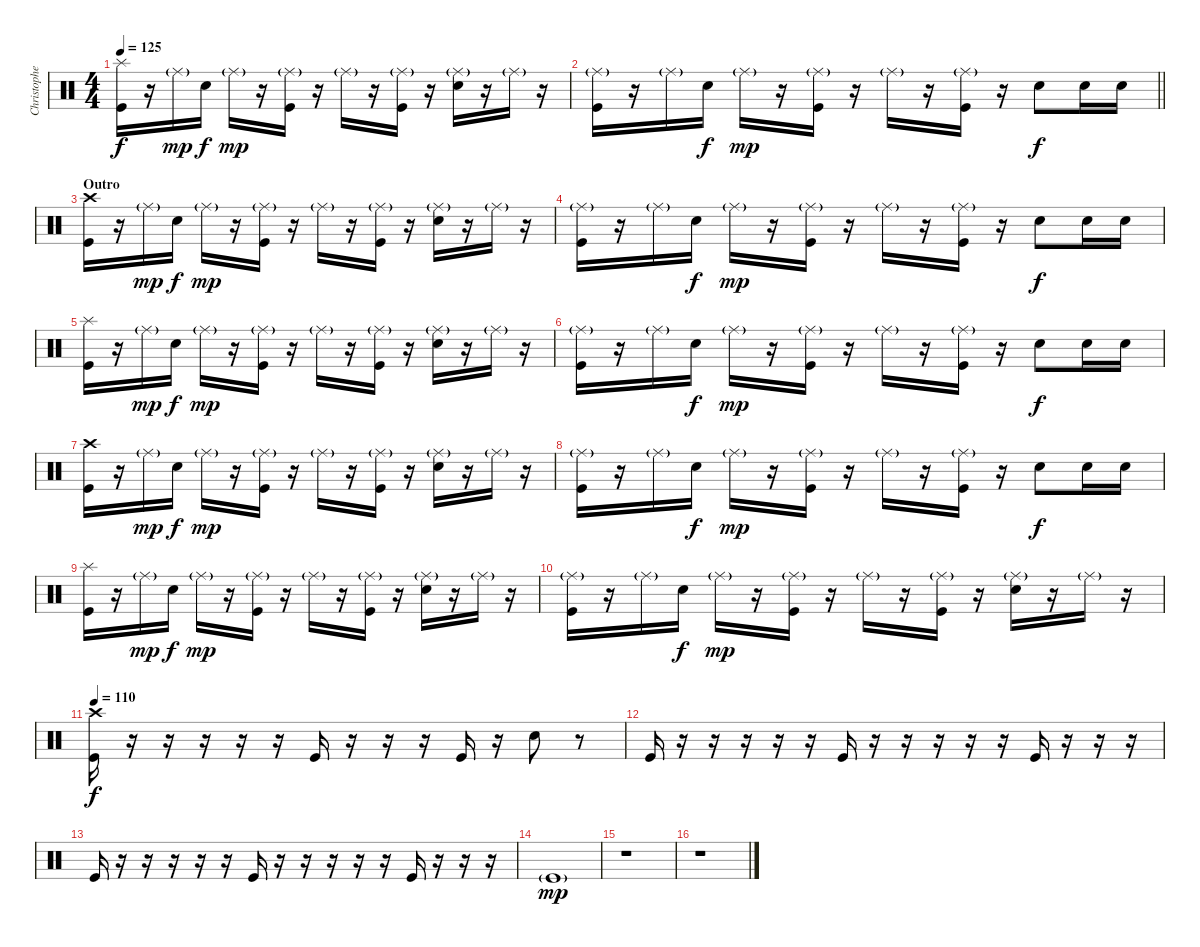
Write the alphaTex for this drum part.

\track ("Christopher - Drums" "Christophe") {instrument percussion}
\staff {score}
\articulation defaults
\ts (4 4)
\tempo 125
\clef neutral
\ks c
("Splash (hit)" "Kick (hit)").16{dy f} r.16 "Ride (middle)"{g}.16{dy mp} "Electric Snare (hit)".16{dy f} "Ride (middle)"{g}.16{dy mp} r.16 ("Ride (middle)"{g} "Kick (hit)").16 r.16 "Ride (middle)"{g}.16 r.16 ("Ride (middle)"{g} "Kick (hit)").16 r.16 ("Ride (middle)"{g} "Electric Snare (hit)").16 r.16 "Ride (middle)"{g}.16 r.16 |
\barLineRight lightlight
("Ride (middle)"{g} "Kick (hit)").16 r.16 "Ride (middle)"{g}.16 "Electric Snare (hit)".16{dy f} "Ride (middle)"{g}.16{dy mp} r.16 ("Ride (middle)"{g} "Kick (hit)").16 r.16 "Ride (middle)"{g}.16 r.16 ("Ride (middle)"{g} "Kick (hit)").16 r.16 "Electric Snare (hit)".8{dy f} "Electric Snare (hit)".16 "Electric Snare (hit)".16 |
\section ("" "Outro")
("Crash high (hit)" "Kick (hit)").16 r.16 "Ride (middle)"{g}.16{dy mp} "Electric Snare (hit)".16{dy f} "Ride (middle)"{g}.16{dy mp} r.16 ("Ride (middle)"{g} "Kick (hit)").16 r.16 "Ride (middle)"{g}.16 r.16 ("Ride (middle)"{g} "Kick (hit)").16 r.16 ("Ride (middle)"{g} "Electric Snare (hit)").16 r.16 "Ride (middle)"{g}.16 r.16 |
("Ride (middle)"{g} "Kick (hit)").16 r.16 "Ride (middle)"{g}.16 "Electric Snare (hit)".16{dy f} "Ride (middle)"{g}.16{dy mp} r.16 ("Ride (middle)"{g} "Kick (hit)").16 r.16 "Ride (middle)"{g}.16 r.16 ("Ride (middle)"{g} "Kick (hit)").16 r.16 "Electric Snare (hit)".8{dy f} "Electric Snare (hit)".16 "Electric Snare (hit)".16 |
("Splash (hit)" "Kick (hit)").16 r.16 "Ride (middle)"{g}.16{dy mp} "Electric Snare (hit)".16{dy f} "Ride (middle)"{g}.16{dy mp} r.16 ("Ride (middle)"{g} "Kick (hit)").16 r.16 "Ride (middle)"{g}.16 r.16 ("Ride (middle)"{g} "Kick (hit)").16 r.16 ("Ride (middle)"{g} "Electric Snare (hit)").16 r.16 "Ride (middle)"{g}.16 r.16 |
("Ride (middle)"{g} "Kick (hit)").16 r.16 "Ride (middle)"{g}.16 "Electric Snare (hit)".16{dy f} "Ride (middle)"{g}.16{dy mp} r.16 ("Ride (middle)"{g} "Kick (hit)").16 r.16 "Ride (middle)"{g}.16 r.16 ("Ride (middle)"{g} "Kick (hit)").16 r.16 "Electric Snare (hit)".8{dy f} "Electric Snare (hit)".16 "Electric Snare (hit)".16 |
("Crash high (hit)" "Kick (hit)").16 r.16 "Ride (middle)"{g}.16{dy mp} "Electric Snare (hit)".16{dy f} "Ride (middle)"{g}.16{dy mp} r.16 ("Ride (middle)"{g} "Kick (hit)").16 r.16 "Ride (middle)"{g}.16 r.16 ("Ride (middle)"{g} "Kick (hit)").16 r.16 ("Ride (middle)"{g} "Electric Snare (hit)").16 r.16 "Ride (middle)"{g}.16 r.16 |
("Ride (middle)"{g} "Kick (hit)").16 r.16 "Ride (middle)"{g}.16 "Electric Snare (hit)".16{dy f} "Ride (middle)"{g}.16{dy mp} r.16 ("Ride (middle)"{g} "Kick (hit)").16 r.16 "Ride (middle)"{g}.16 r.16 ("Ride (middle)"{g} "Kick (hit)").16 r.16 "Electric Snare (hit)".8{dy f} "Electric Snare (hit)".16 "Electric Snare (hit)".16 |
("Splash (hit)" "Kick (hit)").16 r.16 "Ride (middle)"{g}.16{dy mp} "Electric Snare (hit)".16{dy f} "Ride (middle)"{g}.16{dy mp} r.16 ("Ride (middle)"{g} "Kick (hit)").16 r.16 "Ride (middle)"{g}.16 r.16 ("Ride (middle)"{g} "Kick (hit)").16 r.16 ("Ride (middle)"{g} "Electric Snare (hit)").16 r.16 "Ride (middle)"{g}.16 r.16 |
("Ride (middle)"{g} "Kick (hit)").16 r.16 "Ride (middle)"{g}.16 "Electric Snare (hit)".16{dy f} "Ride (middle)"{g}.16{dy mp} r.16 ("Ride (middle)"{g} "Kick (hit)").16 r.16 "Ride (middle)"{g}.16 r.16 ("Ride (middle)"{g} "Kick (hit)").16 r.16 ("Ride (middle)"{g} "Electric Snare (hit)").16 r.16 "Ride (middle)"{g}.16 r.16 |
\tempo 110
("Crash high (hit)" "Kick (hit)").16{dy f} r.16 r.16 r.16 r.16 r.16 "Kick (hit)".16 r.16 r.16 r.16 "Kick (hit)".16 r.16 "Electric Snare (hit)".8 r.8 |
"Kick (hit)".16 r.16 r.16 r.16 r.16 r.16 "Kick (hit)".16 r.16 r.16 r.16 r.16 r.16 "Kick (hit)".16 r.16 r.16 r.16 |
"Kick (hit)".16 r.16 r.16 r.16 r.16 r.16 "Kick (hit)".16 r.16 r.16 r.16 r.16 r.16 "Kick (hit)".16 r.16 r.16 r.16 |
"Kick (hit)"{g}.1{dy mp} |
r.1 |
r.1
